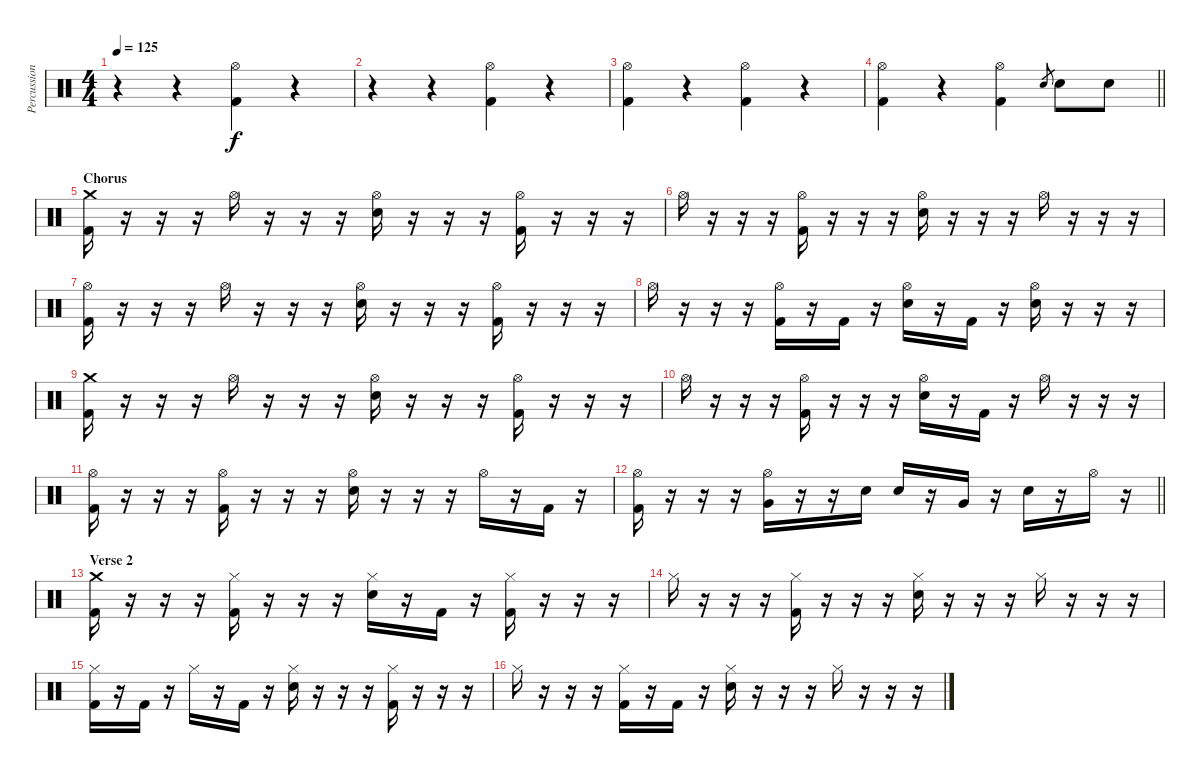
\track ("Percussion" "Percussion") {instrument percussion}
\staff {score}
\articulation defaults
\ts (4 4)
\tempo 125
\clef neutral
\ks c
r.4{dy f} r.4 ("Hi-Hat (open)" "Kick (hit) 2").4 r.4 |
r.4 r.4 ("Hi-Hat (open)" "Kick (hit) 2").4 r.4 |
("Hi-Hat (open)" "Kick (hit) 2").4 r.4 ("Hi-Hat (open)" "Kick (hit) 2").4 r.4 |
\barLineRight lightlight
("Hi-Hat (open)" "Kick (hit) 2").4 r.4 ("Hi-Hat (open)" "Kick (hit) 2").4 "Electric Snare (hit)".8{gr} "Electric Snare (hit)".8 "Electric Snare (hit)".8 |
\section ("" "Chorus")
("Crash medium (hit)" "Kick (hit) 2").16 r.16 r.16 r.16 "Hi-Hat (open)".16 r.16 r.16 r.16 ("Hi-Hat (open)" "Electric Snare (hit)").16 r.16 r.16 r.16 ("Hi-Hat (open)" "Kick (hit) 2").16 r.16 r.16 r.16 |
"Hi-Hat (open)".16 r.16 r.16 r.16 ("Hi-Hat (open)" "Kick (hit) 2").16 r.16 r.16 r.16 ("Hi-Hat (open)" "Electric Snare (hit)").16 r.16 r.16 r.16 "Hi-Hat (open)".16 r.16 r.16 r.16 |
("Hi-Hat (open)" "Kick (hit) 2").16 r.16 r.16 r.16 "Hi-Hat (open)".16 r.16 r.16 r.16 ("Hi-Hat (open)" "Electric Snare (hit)").16 r.16 r.16 r.16 ("Hi-Hat (open)" "Kick (hit) 2").16 r.16 r.16 r.16 |
"Hi-Hat (open)".16 r.16 r.16 r.16 ("Hi-Hat (open)" "Kick (hit) 2").16 r.16 "Kick (hit) 2".16 r.16 ("Hi-Hat (open)" "Electric Snare (hit)").16 r.16 "Kick (hit) 2".16 r.16 ("Hi-Hat (open)" "Electric Snare (hit)").16 r.16 r.16 r.16 |
("Crash medium (hit)" "Kick (hit) 2").16 r.16 r.16 r.16 "Hi-Hat (open)".16 r.16 r.16 r.16 ("Hi-Hat (open)" "Electric Snare (hit)").16 r.16 r.16 r.16 ("Hi-Hat (open)" "Kick (hit) 2").16 r.16 r.16 r.16 |
"Hi-Hat (open)".16 r.16 r.16 r.16 ("Hi-Hat (open)" "Kick (hit) 2").16 r.16 r.16 r.16 ("Hi-Hat (open)" "Electric Snare (hit)").16 r.16 "Kick (hit) 2".16 r.16 "Hi-Hat (open)".16 r.16 r.16 r.16 |
("Hi-Hat (open)" "Kick (hit) 2").16 r.16 r.16 r.16 ("Hi-Hat (open)" "Kick (hit) 2").16 r.16 r.16 r.16 ("Hi-Hat (open)" "Electric Snare (hit)").16 r.16 r.16 r.16 "Hi-Hat (open)".16 r.16 "Kick (hit) 2".16 r.16 |
\barLineRight lightlight
("Hi-Hat (open)" "Kick (hit) 2").16 r.16 r.16 r.16 ("Hi-Hat (open)" "Very Low Tom (hit)").16 r.16 r.16 "Electric Snare (hit)".16 "Electric Snare (hit)".16 r.16 "Very Low Tom (hit)".16 r.16 "Electric Snare (hit)".16 r.16 "Hi-Hat (open)".16 r.16 |
\section ("" "Verse 2")
("Crash medium (hit)" "Kick (hit) 2").16 r.16 r.16 r.16 ("Hi-Hat (closed)" "Kick (hit) 2").16 r.16 r.16 r.16 ("Hi-Hat (closed)" "Electric Snare (hit)").16 r.16 "Kick (hit) 2".16 r.16 ("Hi-Hat (closed)" "Kick (hit) 2").16 r.16 r.16 r.16 |
"Hi-Hat (closed)".16 r.16 r.16 r.16 ("Hi-Hat (closed)" "Kick (hit) 2").16 r.16 r.16 r.16 ("Hi-Hat (closed)" "Electric Snare (hit)").16 r.16 r.16 r.16 "Hi-Hat (closed)".16 r.16 r.16 r.16 |
("Hi-Hat (closed)" "Kick (hit) 2").16 r.16 "Kick (hit) 2".16 r.16 "Hi-Hat (closed)".16 r.16 "Kick (hit) 2".16 r.16 ("Hi-Hat (closed)" "Electric Snare (hit)").16 r.16 r.16 r.16 ("Hi-Hat (closed)" "Kick (hit) 2").16 r.16 r.16 r.16 |
"Hi-Hat (closed)".16 r.16 r.16 r.16 ("Hi-Hat (closed)" "Kick (hit) 2").16 r.16 "Kick (hit) 2".16 r.16 ("Hi-Hat (closed)" "Electric Snare (hit)").16 r.16 r.16 r.16 "Hi-Hat (closed)".16 r.16 r.16 r.16
